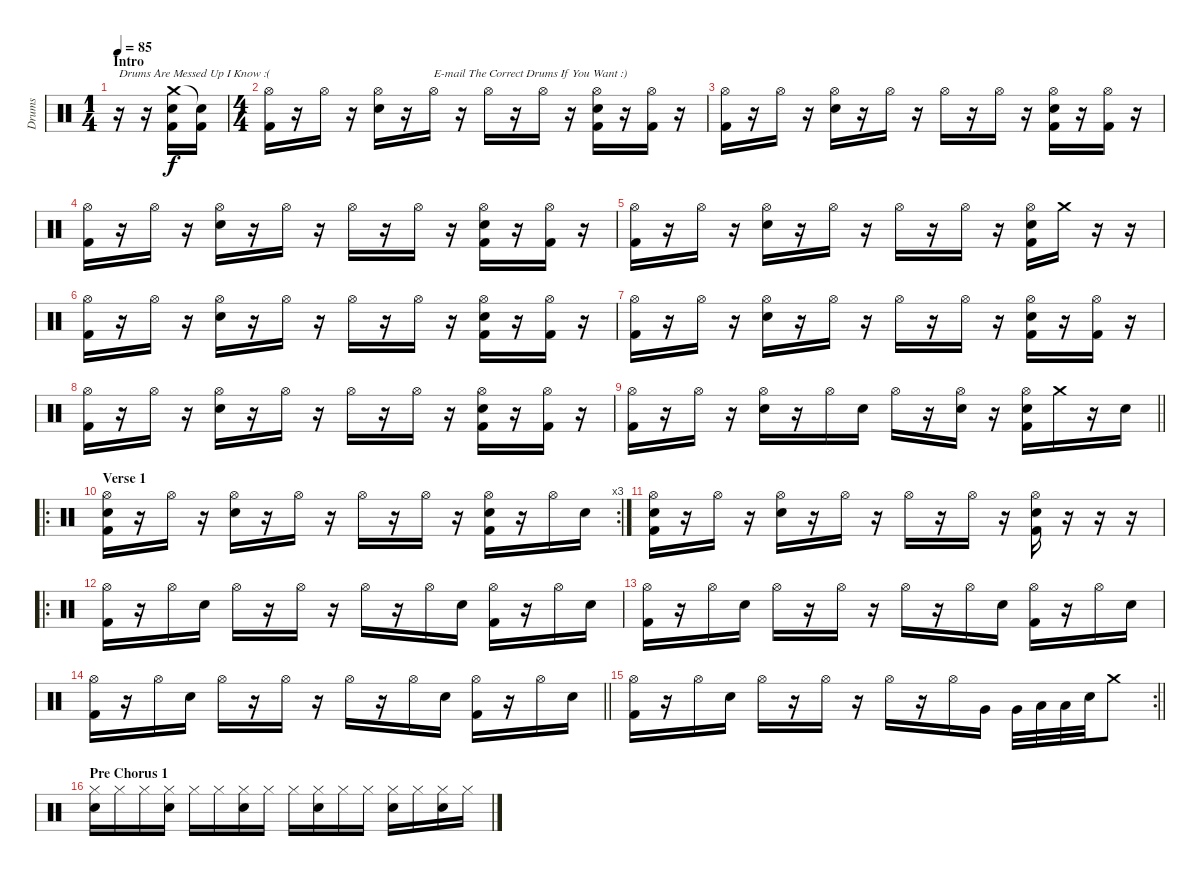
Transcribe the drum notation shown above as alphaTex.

\track ("Drums" "Drums") {instrument percussion}
\staff {score}
\articulation defaults
\ts (1 4)
\section ("" "Intro")
\tempo 85
\clef neutral
\ks c
r.16{txt "Drums Are Messed Up I Know :(" dy f} r.16 ("Crash medium (hit)" "Snare (hit) 2" "Kick (hit) 2").16 ("Snare (hit)"{t} "Kick (hit) 2").16 |
\ts (4 4)
("Hi-Hat (open)" "Kick (hit) 2").16 r.16 "Hi-Hat (open)".16 r.16 ("Hi-Hat (open)" "Snare (hit) 2").16 r.16 "Hi-Hat (open)".16{txt "E-mail The Correct Drums If You Want :)"} r.16 "Hi-Hat (open)".16 r.16 "Hi-Hat (open)".16 r.16 ("Hi-Hat (open)" "Snare (hit) 2" "Kick (hit) 2").16 r.16 ("Hi-Hat (open)" "Kick (hit) 2").16 r.16 |
("Hi-Hat (open)" "Kick (hit) 2").16 r.16 "Hi-Hat (open)".16 r.16 ("Hi-Hat (open)" "Snare (hit) 2").16 r.16 "Hi-Hat (open)".16 r.16 "Hi-Hat (open)".16 r.16 "Hi-Hat (open)".16 r.16 ("Hi-Hat (open)" "Snare (hit) 2" "Kick (hit) 2").16 r.16 ("Hi-Hat (open)" "Kick (hit) 2").16 r.16 |
("Hi-Hat (open)" "Kick (hit) 2").16 r.16 "Hi-Hat (open)".16 r.16 ("Hi-Hat (open)" "Snare (hit) 2").16 r.16 "Hi-Hat (open)".16 r.16 "Hi-Hat (open)".16 r.16 "Hi-Hat (open)".16 r.16 ("Hi-Hat (open)" "Snare (hit) 2" "Kick (hit) 2").16 r.16 ("Hi-Hat (open)" "Kick (hit) 2").16 r.16 |
("Hi-Hat (open)" "Kick (hit) 2").16 r.16 "Hi-Hat (open)".16 r.16 ("Hi-Hat (open)" "Snare (hit) 2").16 r.16 "Hi-Hat (open)".16 r.16 "Hi-Hat (open)".16 r.16 "Hi-Hat (open)".16 r.16 ("Hi-Hat (open)" "Snare (hit) 2" "Kick (hit) 2").16 "Crash medium (hit)".16 r.16 r.16 |
("Hi-Hat (open)" "Kick (hit) 2").16 r.16 "Hi-Hat (open)".16 r.16 ("Hi-Hat (open)" "Snare (hit) 2").16 r.16 "Hi-Hat (open)".16 r.16 "Hi-Hat (open)".16 r.16 "Hi-Hat (open)".16 r.16 ("Hi-Hat (open)" "Snare (hit) 2" "Kick (hit) 2").16 r.16 ("Hi-Hat (open)" "Kick (hit) 2").16 r.16 |
("Hi-Hat (open)" "Kick (hit) 2").16 r.16 "Hi-Hat (open)".16 r.16 ("Hi-Hat (open)" "Snare (hit) 2").16 r.16 "Hi-Hat (open)".16 r.16 "Hi-Hat (open)".16 r.16 "Hi-Hat (open)".16 r.16 ("Hi-Hat (open)" "Snare (hit) 2" "Kick (hit) 2").16 r.16 ("Hi-Hat (open)" "Kick (hit) 2").16 r.16 |
("Hi-Hat (open)" "Kick (hit) 2").16 r.16 "Hi-Hat (open)".16 r.16 ("Hi-Hat (open)" "Snare (hit) 2").16 r.16 "Hi-Hat (open)".16 r.16 "Hi-Hat (open)".16 r.16 "Hi-Hat (open)".16 r.16 ("Hi-Hat (open)" "Snare (hit) 2" "Kick (hit) 2").16 r.16 ("Hi-Hat (open)" "Kick (hit) 2").16 r.16 |
\barLineRight lightlight
("Hi-Hat (open)" "Kick (hit) 2").16 r.16 "Hi-Hat (open)".16 r.16 ("Hi-Hat (open)" "Snare (hit) 2").16 r.16 "Hi-Hat (open)".16 "Snare (hit) 2".16 "Hi-Hat (open)".16 r.16 ("Hi-Hat (open)" "Snare (hit) 2").16 r.16 ("Hi-Hat (open)" "Snare (hit) 2" "Kick (hit) 2").16 "Crash medium (hit)".16 r.16 "Snare (hit) 2".16 |
\ro
\rc 3
\section ("" "Verse 1")
("Hi-Hat (open)" "Snare (hit) 2" "Kick (hit) 2").16 r.16 "Hi-Hat (open)".16 r.16 ("Hi-Hat (open)" "Snare (hit) 2").16 r.16 "Hi-Hat (open)".16 r.16 "Hi-Hat (open)".16 r.16 "Hi-Hat (open)".16 r.16 ("Hi-Hat (open)" "Snare (hit) 2" "Kick (hit) 2").16 r.16 "Hi-Hat (open)".16 "Snare (hit) 2".16 |
("Hi-Hat (open)" "Snare (hit) 2" "Kick (hit) 2").16 r.16 "Hi-Hat (open)".16 r.16 ("Hi-Hat (open)" "Snare (hit) 2").16 r.16 "Hi-Hat (open)".16 r.16 "Hi-Hat (open)".16 r.16 "Hi-Hat (open)".16 r.16 ("Hi-Hat (open)" "Snare (hit) 2" "Kick (hit) 2").16 r.16 r.16 r.16 |
\ro
("Hi-Hat (open)" "Kick (hit) 2").16 r.16 "Hi-Hat (open)".16 "Snare (hit) 2".16 "Hi-Hat (open)".16 r.16 "Hi-Hat (open)".16 r.16 "Hi-Hat (open)".16 r.16 "Hi-Hat (open)".16 "Snare (hit) 2".16 ("Hi-Hat (open)" "Kick (hit) 2").16 r.16 "Hi-Hat (open)".16 "Snare (hit) 2".16 |
("Hi-Hat (open)" "Kick (hit) 2").16 r.16 "Hi-Hat (open)".16 "Snare (hit) 2".16 "Hi-Hat (open)".16 r.16 "Hi-Hat (open)".16 r.16 "Hi-Hat (open)".16 r.16 "Hi-Hat (open)".16 "Snare (hit) 2".16 ("Hi-Hat (open)" "Kick (hit) 2").16 r.16 "Hi-Hat (open)".16 "Snare (hit) 2".16 |
\barLineRight lightlight
("Hi-Hat (open)" "Kick (hit) 2").16 r.16 "Hi-Hat (open)".16 "Snare (hit) 2".16 "Hi-Hat (open)".16 r.16 "Hi-Hat (open)".16 r.16 "Hi-Hat (open)".16 r.16 "Hi-Hat (open)".16 "Snare (hit) 2".16 ("Hi-Hat (open)" "Kick (hit) 2").16 r.16 "Hi-Hat (open)".16 "Snare (hit) 2".16 |
\rc 2
\barLineRight lightlight
("Hi-Hat (open)" "Kick (hit) 2").16 r.16 "Hi-Hat (open)".16 "Snare (hit) 2".16 "Hi-Hat (open)".16 r.16 "Hi-Hat (open)".16 r.16 "Hi-Hat (open)".16 r.16 "Hi-Hat (open)".16 "Very Low Tom (hit)".16 "Very Low Tom (hit)".32 "Low Tom (hit)".32 "Low Tom (hit)".32 "Snare (hit) 2".32 "Crash medium (hit)".8 |
\section ("" "Pre Chorus 1")
("Hi-Hat (closed)" "Snare (hit) 2").16 "Hi-Hat (closed)".16 "Hi-Hat (closed)".16 ("Hi-Hat (closed)" "Snare (hit) 2").16 "Hi-Hat (closed)".16 "Hi-Hat (closed)".16 ("Hi-Hat (closed)" "Snare (hit) 2").16 "Hi-Hat (closed)".16 "Hi-Hat (closed)".16 ("Hi-Hat (closed)" "Snare (hit) 2").16 "Hi-Hat (closed)".16 "Hi-Hat (closed)".16 ("Hi-Hat (closed)" "Snare (hit) 2").16 "Hi-Hat (closed)".16 ("Hi-Hat (closed)" "Snare (hit) 2").16 "Hi-Hat (closed)".16
